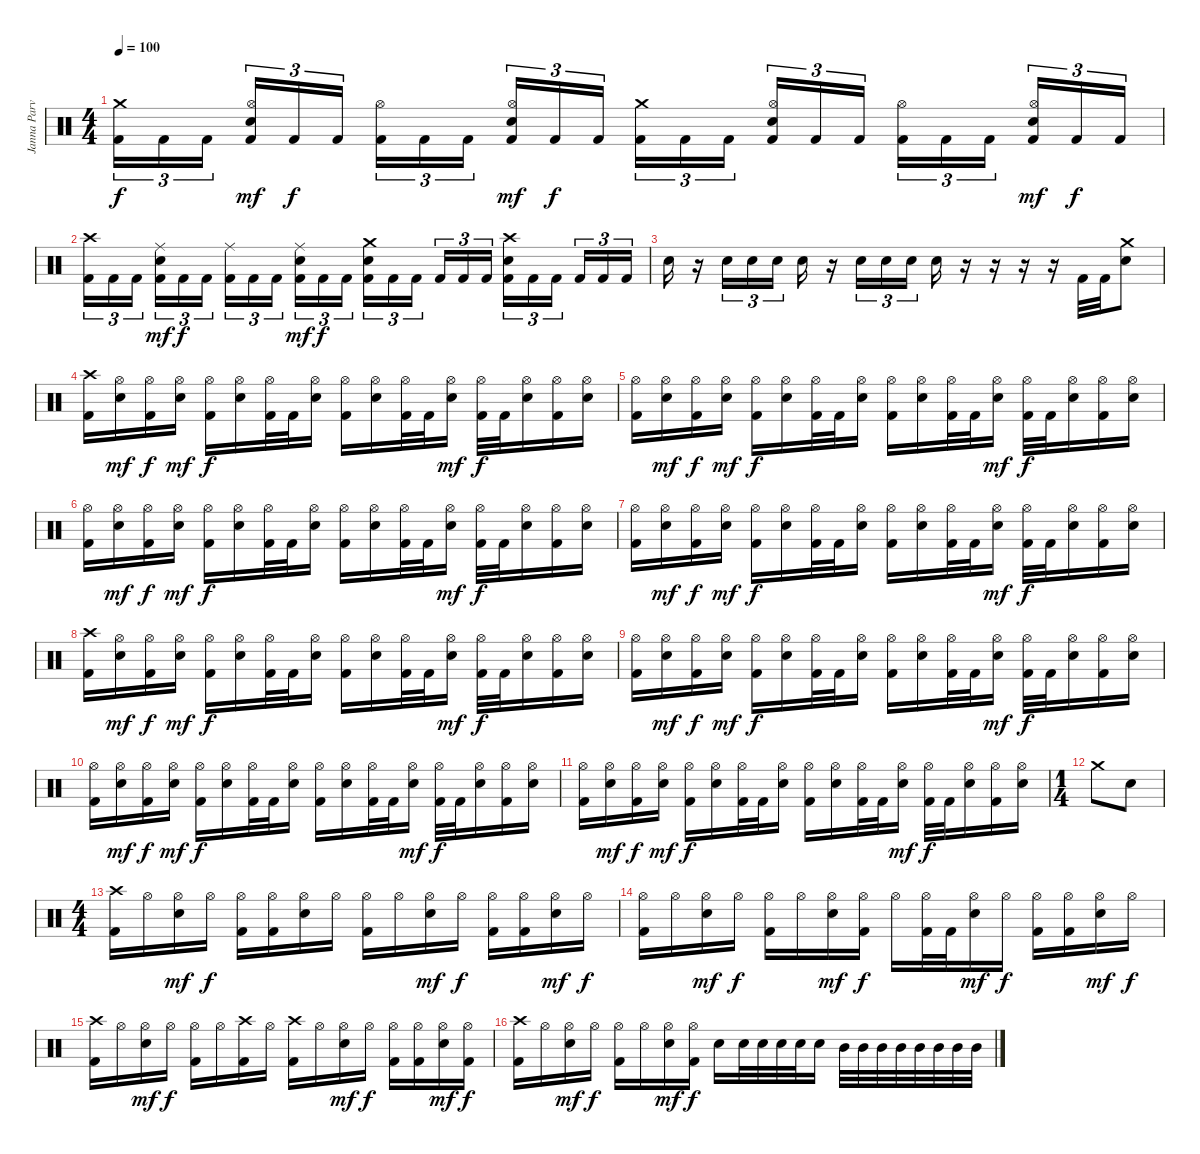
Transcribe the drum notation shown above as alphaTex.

\track ("Janna Parvienen" "Janna Parv") {solo instrument percussion}
\staff {score}
\articulation defaults
\ts (4 4)
\tempo 100
\clef neutral
\ks c
("Crash medium (hit)" "Kick (hit) 2").16{tu (3 2) dy f} "Kick (hit) 2".16{tu (3 2)} "Kick (hit) 2".16{tu (3 2) beam splitsecondary} ("Hi-Hat (open)" "Electric Snare (hit)" "Kick (hit) 2").16{tu (3 2) dy mf} "Kick (hit) 2".16{tu (3 2) dy f} "Kick (hit) 2".16{tu (3 2)} ("Hi-Hat (open)" "Kick (hit) 2").16{tu (3 2)} "Kick (hit) 2".16{tu (3 2)} "Kick (hit) 2".16{tu (3 2) beam splitsecondary} ("Hi-Hat (open)" "Electric Snare (hit)" "Kick (hit) 2").16{tu (3 2) dy mf} "Kick (hit) 2".16{tu (3 2) dy f} "Kick (hit) 2".16{tu (3 2)} ("Crash medium (hit)" "Kick (hit) 2").16{tu (3 2)} "Kick (hit) 2".16{tu (3 2)} "Kick (hit) 2".16{tu (3 2) beam splitsecondary} ("Hi-Hat (open)" "Electric Snare (hit)" "Kick (hit) 2").16{tu (3 2)} "Kick (hit) 2".16{tu (3 2)} "Kick (hit) 2".16{tu (3 2)} ("Hi-Hat (open)" "Kick (hit) 2").16{tu (3 2)} "Kick (hit) 2".16{tu (3 2)} "Kick (hit) 2".16{tu (3 2) beam splitsecondary} ("Hi-Hat (open)" "Electric Snare (hit)" "Kick (hit) 2").16{tu (3 2) dy mf} "Kick (hit) 2".16{tu (3 2) dy f} "Kick (hit) 2".16{tu (3 2)} |
("Crash high (hit)" "Kick (hit) 2").16{tu (3 2)} "Kick (hit) 2".16{tu (3 2)} "Kick (hit) 2".16{tu (3 2) beam splitsecondary} ("Ride (middle)" "Electric Snare (hit)" "Kick (hit) 2").16{tu (3 2) dy mf} "Kick (hit) 2".16{tu (3 2) dy f} "Kick (hit) 2".16{tu (3 2)} ("Ride (middle)" "Kick (hit) 2").16{tu (3 2)} "Kick (hit) 2".16{tu (3 2)} "Kick (hit) 2".16{tu (3 2) beam splitsecondary} ("Ride (middle)" "Electric Snare (hit)" "Kick (hit) 2").16{tu (3 2) dy mf} "Kick (hit) 2".16{tu (3 2) dy f} "Kick (hit) 2".16{tu (3 2)} ("Crash medium (hit)" "Electric Snare (hit)" "Kick (hit) 2").16{tu (3 2)} "Kick (hit) 2".16{tu (3 2)} "Kick (hit) 2".16{tu (3 2) beam splitsecondary} "Kick (hit) 2".16{tu (3 2)} "Kick (hit) 2".16{tu (3 2)} "Kick (hit) 2".16{tu (3 2)} ("Crash high (hit)" "Electric Snare (hit)" "Kick (hit) 2").16{tu (3 2)} "Kick (hit) 2".16{tu (3 2)} "Kick (hit) 2".16{tu (3 2) beam splitsecondary} "Kick (hit) 2".16{tu (3 2)} "Kick (hit) 2".16{tu (3 2)} "Kick (hit) 2".16{tu (3 2)} |
"Electric Snare (hit)".16 r.16 "Electric Snare (hit)".16{tu (3 2)} "Electric Snare (hit)".16{tu (3 2)} "Electric Snare (hit)".16{tu (3 2)} "Electric Snare (hit)".16 r.16 "Electric Snare (hit)".16{tu (3 2)} "Electric Snare (hit)".16{tu (3 2)} "Electric Snare (hit)".16{tu (3 2)} "Electric Snare (hit)".16 r.16 r.16 r.16 r.16 "Kick (hit) 2".32 "Kick (hit) 2".32 ("Crash medium (hit)" "Electric Snare (hit)").8 |
("Crash high (hit)" "Kick (hit) 2").16 ("Hi-Hat (open)" "Electric Snare (hit)").16{dy mf} ("Hi-Hat (open)" "Kick (hit) 2").16{dy f} ("Hi-Hat (open)" "Electric Snare (hit)").16{dy mf} ("Hi-Hat (open)" "Kick (hit) 2").16{dy f} ("Hi-Hat (open)" "Electric Snare (hit)").16 ("Hi-Hat (open)" "Kick (hit) 2").32 "Kick (hit) 2".32 ("Hi-Hat (open)" "Electric Snare (hit)").16 ("Hi-Hat (open)" "Kick (hit) 2").16 ("Hi-Hat (open)" "Electric Snare (hit)").16 ("Hi-Hat (open)" "Kick (hit) 2").32 "Kick (hit) 2".32 ("Hi-Hat (open)" "Electric Snare (hit)").16{dy mf} ("Hi-Hat (open)" "Kick (hit) 2").32{dy f} "Kick (hit) 2".32 ("Hi-Hat (open)" "Electric Snare (hit)").16 ("Hi-Hat (open)" "Kick (hit) 2").16 ("Hi-Hat (open)" "Electric Snare (hit)").16 |
("Hi-Hat (open)" "Kick (hit) 2").16 ("Hi-Hat (open)" "Electric Snare (hit)").16{dy mf} ("Hi-Hat (open)" "Kick (hit) 2").16{dy f} ("Hi-Hat (open)" "Electric Snare (hit)").16{dy mf} ("Hi-Hat (open)" "Kick (hit) 2").16{dy f} ("Hi-Hat (open)" "Electric Snare (hit)").16 ("Hi-Hat (open)" "Kick (hit) 2").32 "Kick (hit) 2".32 ("Hi-Hat (open)" "Electric Snare (hit)").16 ("Hi-Hat (open)" "Kick (hit) 2").16 ("Hi-Hat (open)" "Electric Snare (hit)").16 ("Hi-Hat (open)" "Kick (hit) 2").32 "Kick (hit) 2".32 ("Hi-Hat (open)" "Electric Snare (hit)").16{dy mf} ("Hi-Hat (open)" "Kick (hit) 2").32{dy f} "Kick (hit) 2".32 ("Hi-Hat (open)" "Electric Snare (hit)").16 ("Hi-Hat (open)" "Kick (hit) 2").16 ("Hi-Hat (open)" "Electric Snare (hit)").16 |
("Hi-Hat (open)" "Kick (hit) 2").16 ("Hi-Hat (open)" "Electric Snare (hit)").16{dy mf} ("Hi-Hat (open)" "Kick (hit) 2").16{dy f} ("Hi-Hat (open)" "Electric Snare (hit)").16{dy mf} ("Hi-Hat (open)" "Kick (hit) 2").16{dy f} ("Hi-Hat (open)" "Electric Snare (hit)").16 ("Hi-Hat (open)" "Kick (hit) 2").32 "Kick (hit) 2".32 ("Hi-Hat (open)" "Electric Snare (hit)").16 ("Hi-Hat (open)" "Kick (hit) 2").16 ("Hi-Hat (open)" "Electric Snare (hit)").16 ("Hi-Hat (open)" "Kick (hit) 2").32 "Kick (hit) 2".32 ("Hi-Hat (open)" "Electric Snare (hit)").16{dy mf} ("Hi-Hat (open)" "Kick (hit) 2").32{dy f} "Kick (hit) 2".32 ("Hi-Hat (open)" "Electric Snare (hit)").16 ("Hi-Hat (open)" "Kick (hit) 2").16 ("Hi-Hat (open)" "Electric Snare (hit)").16 |
("Hi-Hat (open)" "Kick (hit) 2").16 ("Hi-Hat (open)" "Electric Snare (hit)").16{dy mf} ("Hi-Hat (open)" "Kick (hit) 2").16{dy f} ("Hi-Hat (open)" "Electric Snare (hit)").16{dy mf} ("Hi-Hat (open)" "Kick (hit) 2").16{dy f} ("Hi-Hat (open)" "Electric Snare (hit)").16 ("Hi-Hat (open)" "Kick (hit) 2").32 "Kick (hit) 2".32 ("Hi-Hat (open)" "Electric Snare (hit)").16 ("Hi-Hat (open)" "Kick (hit) 2").16 ("Hi-Hat (open)" "Electric Snare (hit)").16 ("Hi-Hat (open)" "Kick (hit) 2").32 "Kick (hit) 2".32 ("Hi-Hat (open)" "Electric Snare (hit)").16{dy mf} ("Hi-Hat (open)" "Kick (hit) 2").32{dy f} "Kick (hit) 2".32 ("Hi-Hat (open)" "Electric Snare (hit)").16 ("Hi-Hat (open)" "Kick (hit) 2").16 ("Hi-Hat (open)" "Electric Snare (hit)").16 |
("Crash high (hit)" "Kick (hit) 2").16 ("Hi-Hat (open)" "Electric Snare (hit)").16{dy mf} ("Hi-Hat (open)" "Kick (hit) 2").16{dy f} ("Hi-Hat (open)" "Electric Snare (hit)").16{dy mf} ("Hi-Hat (open)" "Kick (hit) 2").16{dy f} ("Hi-Hat (open)" "Electric Snare (hit)").16 ("Hi-Hat (open)" "Kick (hit) 2").32 "Kick (hit) 2".32 ("Hi-Hat (open)" "Electric Snare (hit)").16 ("Hi-Hat (open)" "Kick (hit) 2").16 ("Hi-Hat (open)" "Electric Snare (hit)").16 ("Hi-Hat (open)" "Kick (hit) 2").32 "Kick (hit) 2".32 ("Hi-Hat (open)" "Electric Snare (hit)").16{dy mf} ("Hi-Hat (open)" "Kick (hit) 2").32{dy f} "Kick (hit) 2".32 ("Hi-Hat (open)" "Electric Snare (hit)").16 ("Hi-Hat (open)" "Kick (hit) 2").16 ("Hi-Hat (open)" "Electric Snare (hit)").16 |
("Hi-Hat (open)" "Kick (hit) 2").16 ("Hi-Hat (open)" "Electric Snare (hit)").16{dy mf} ("Hi-Hat (open)" "Kick (hit) 2").16{dy f} ("Hi-Hat (open)" "Electric Snare (hit)").16{dy mf} ("Hi-Hat (open)" "Kick (hit) 2").16{dy f} ("Hi-Hat (open)" "Electric Snare (hit)").16 ("Hi-Hat (open)" "Kick (hit) 2").32 "Kick (hit) 2".32 ("Hi-Hat (open)" "Electric Snare (hit)").16 ("Hi-Hat (open)" "Kick (hit) 2").16 ("Hi-Hat (open)" "Electric Snare (hit)").16 ("Hi-Hat (open)" "Kick (hit) 2").32 "Kick (hit) 2".32 ("Hi-Hat (open)" "Electric Snare (hit)").16{dy mf} ("Hi-Hat (open)" "Kick (hit) 2").32{dy f} "Kick (hit) 2".32 ("Hi-Hat (open)" "Electric Snare (hit)").16 ("Hi-Hat (open)" "Kick (hit) 2").16 ("Hi-Hat (open)" "Electric Snare (hit)").16 |
("Hi-Hat (open)" "Kick (hit) 2").16 ("Hi-Hat (open)" "Electric Snare (hit)").16{dy mf} ("Hi-Hat (open)" "Kick (hit) 2").16{dy f} ("Hi-Hat (open)" "Electric Snare (hit)").16{dy mf} ("Hi-Hat (open)" "Kick (hit) 2").16{dy f} ("Hi-Hat (open)" "Electric Snare (hit)").16 ("Hi-Hat (open)" "Kick (hit) 2").32 "Kick (hit) 2".32 ("Hi-Hat (open)" "Electric Snare (hit)").16 ("Hi-Hat (open)" "Kick (hit) 2").16 ("Hi-Hat (open)" "Electric Snare (hit)").16 ("Hi-Hat (open)" "Kick (hit) 2").32 "Kick (hit) 2".32 ("Hi-Hat (open)" "Electric Snare (hit)").16{dy mf} ("Hi-Hat (open)" "Kick (hit) 2").32{dy f} "Kick (hit) 2".32 ("Hi-Hat (open)" "Electric Snare (hit)").16 ("Hi-Hat (open)" "Kick (hit) 2").16 ("Hi-Hat (open)" "Electric Snare (hit)").16 |
("Hi-Hat (open)" "Kick (hit) 2").16 ("Hi-Hat (open)" "Electric Snare (hit)").16{dy mf} ("Hi-Hat (open)" "Kick (hit) 2").16{dy f} ("Hi-Hat (open)" "Electric Snare (hit)").16{dy mf} ("Hi-Hat (open)" "Kick (hit) 2").16{dy f} ("Hi-Hat (open)" "Electric Snare (hit)").16 ("Hi-Hat (open)" "Kick (hit) 2").32 "Kick (hit) 2".32 ("Hi-Hat (open)" "Electric Snare (hit)").16 ("Hi-Hat (open)" "Kick (hit) 2").16 ("Hi-Hat (open)" "Electric Snare (hit)").16 ("Hi-Hat (open)" "Kick (hit) 2").32 "Kick (hit) 2".32 ("Hi-Hat (open)" "Electric Snare (hit)").16{dy mf} ("Hi-Hat (open)" "Kick (hit) 2").32{dy f} "Kick (hit) 2".32 ("Hi-Hat (open)" "Electric Snare (hit)").16 ("Hi-Hat (open)" "Kick (hit) 2").16 ("Hi-Hat (open)" "Electric Snare (hit)").16 |
\ts (1 4)
"Crash medium (hit)".8 "Electric Snare (hit)".8 |
\ts (4 4)
("Crash high (hit)" "Kick (hit) 2").16 "Hi-Hat (open)".16 ("Hi-Hat (open)" "Electric Snare (hit)").16{dy mf} "Hi-Hat (open)".16{dy f} ("Hi-Hat (open)" "Kick (hit) 2").16 ("Hi-Hat (open)" "Kick (hit) 2").16 ("Hi-Hat (open)" "Electric Snare (hit)").16 "Hi-Hat (open)".16 ("Hi-Hat (open)" "Kick (hit) 2").16 "Hi-Hat (open)".16 ("Hi-Hat (open)" "Electric Snare (hit)").16{dy mf} "Hi-Hat (open)".16{dy f} ("Hi-Hat (open)" "Kick (hit) 2").16 ("Hi-Hat (open)" "Kick (hit) 2").16 ("Hi-Hat (open)" "Electric Snare (hit)").16{dy mf} "Hi-Hat (open)".16{dy f} |
("Hi-Hat (open)" "Kick (hit) 2").16 "Hi-Hat (open)".16 ("Hi-Hat (open)" "Electric Snare (hit)").16{dy mf} "Hi-Hat (open)".16{dy f} ("Hi-Hat (open)" "Kick (hit) 2").16 "Hi-Hat (open)".16 ("Hi-Hat (open)" "Electric Snare (hit)").16{dy mf} ("Hi-Hat (open)" "Kick (hit) 2").16{dy f} "Hi-Hat (open)".16 ("Hi-Hat (open)" "Kick (hit) 2").32 "Kick (hit) 2".32 ("Hi-Hat (open)" "Electric Snare (hit)").16{dy mf} "Hi-Hat (open)".16{dy f} ("Hi-Hat (open)" "Kick (hit) 2").16 ("Hi-Hat (open)" "Kick (hit) 2").16 ("Hi-Hat (open)" "Electric Snare (hit)").16{dy mf} "Hi-Hat (open)".16{dy f} |
("Crash high (hit)" "Kick (hit) 2").16 "Hi-Hat (open)".16 ("Hi-Hat (open)" "Electric Snare (hit)").16{dy mf} "Hi-Hat (open)".16{dy f} ("Hi-Hat (open)" "Kick (hit) 2").16 "Hi-Hat (open)".16 ("Crash high (hit)" "Kick (hit) 2").16 "Hi-Hat (open)".16 ("Crash high (hit)" "Kick (hit) 2").16 "Hi-Hat (open)".16 ("Hi-Hat (open)" "Electric Snare (hit)").16{dy mf} "Hi-Hat (open)".16{dy f} ("Hi-Hat (open)" "Kick (hit) 2").16 ("Hi-Hat (open)" "Kick (hit) 2").16 ("Hi-Hat (open)" "Electric Snare (hit)").16{dy mf} ("Hi-Hat (open)" "Kick (hit) 2").16{dy f} |
("Crash high (hit)" "Kick (hit) 2").16 "Hi-Hat (open)".16 ("Hi-Hat (open)" "Electric Snare (hit)").16{dy mf} "Hi-Hat (open)".16{dy f} ("Hi-Hat (open)" "Kick (hit) 2").16 "Hi-Hat (open)".16 ("Hi-Hat (open)" "Electric Snare (hit)").16{dy mf} ("Hi-Hat (open)" "Kick (hit) 2").16{dy f} "Electric Snare (hit)".16 "Electric Snare (hit)".32 "Electric Snare (hit)".32 "Electric Snare (hit)".32 "Electric Snare (hit)".32 "Electric Snare (hit)".16 "Mid Tom (hit)".32 "Mid Tom (hit)".32 "Mid Tom (hit)".32 "Mid Tom (hit)".32 "Mid Tom (hit)".32 "Mid Tom (hit)".32 "Mid Tom (hit)".32 "Mid Tom (hit)".32
